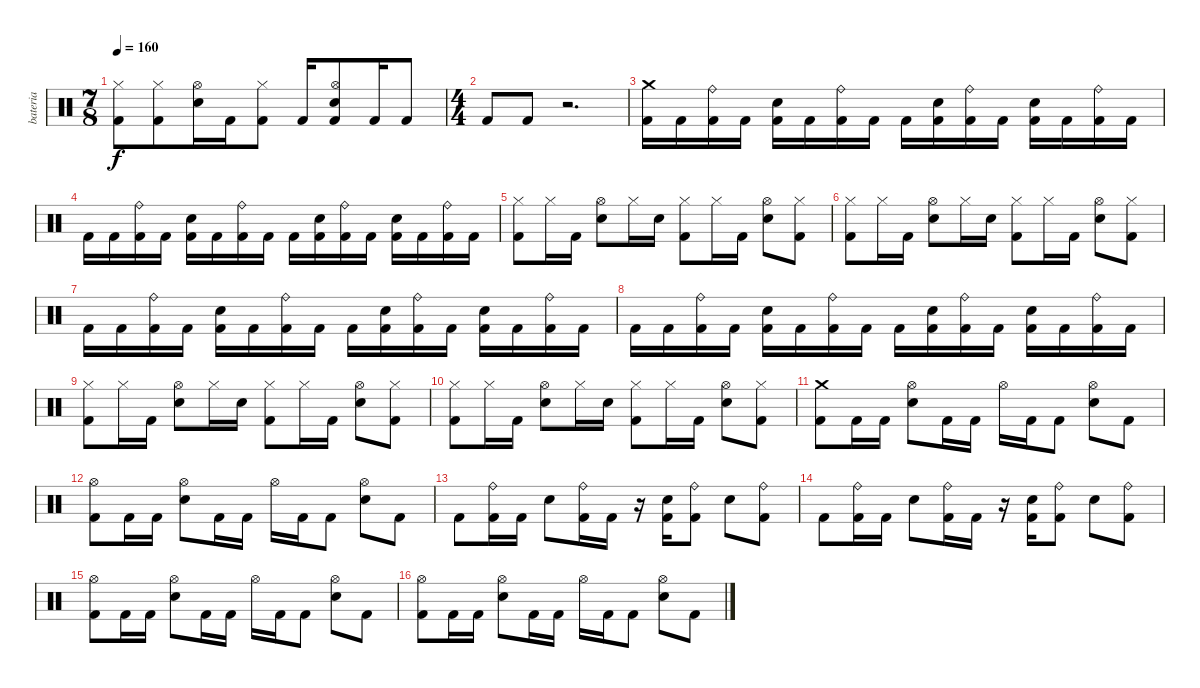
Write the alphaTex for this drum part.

\track ("bateria" "bateria") {instrument percussion}
\staff {score}
\articulation defaults
\ts (7 8)
\tempo 160
\clef neutral
\ks c
("Hi-Hat (closed)" "Kick (hit) 2").8{dy f} ("Hi-Hat (closed)" "Kick (hit) 2").8 ("Hi-Hat (open)" "Electric Snare (hit)").16 "Kick (hit) 2".16 ("Hi-Hat (closed)" "Kick (hit) 2").8 "Kick (hit) 2".16 ("Hi-Hat (open)" "Electric Snare (hit)" "Kick (hit) 2").8 "Kick (hit) 2".16 "Kick (hit) 2".8 |
\ts (4 4)
"Kick (hit) 2".8 "Kick (hit) 2".8 r.2{d} |
("Crash medium (hit)" "Kick (hit) 2").16 "Kick (hit) 2".16 ("Ride (bell)" "Kick (hit) 2").16 "Kick (hit) 2".16 ("Electric Snare (hit)" "Kick (hit) 2").16 "Kick (hit) 2".16 ("Ride (bell)" "Kick (hit) 2").16 "Kick (hit) 2".16 "Kick (hit) 2".16 ("Electric Snare (hit)" "Kick (hit) 2").16 ("Ride (bell)" "Kick (hit) 2").16 "Kick (hit) 2".16 ("Electric Snare (hit)" "Kick (hit) 2").16 "Kick (hit) 2".16 ("Ride (bell)" "Kick (hit) 2").16 "Kick (hit) 2".16 |
"Kick (hit) 2".16 "Kick (hit) 2".16 ("Ride (bell)" "Kick (hit) 2").16 "Kick (hit) 2".16 ("Electric Snare (hit)" "Kick (hit) 2").16 "Kick (hit) 2".16 ("Ride (bell)" "Kick (hit) 2").16 "Kick (hit) 2".16 "Kick (hit) 2".16 ("Electric Snare (hit)" "Kick (hit) 2").16 ("Ride (bell)" "Kick (hit) 2").16 "Kick (hit) 2".16 ("Electric Snare (hit)" "Kick (hit) 2").16 "Kick (hit) 2".16 ("Ride (bell)" "Kick (hit) 2").16 "Kick (hit) 2".16 |
("Hi-Hat (closed)" "Kick (hit) 2").8 "Hi-Hat (closed)".16 "Kick (hit) 2".16 ("Hi-Hat (open)" "Electric Snare (hit)").8 "Hi-Hat (closed)".16 "Electric Snare (hit)".16 ("Hi-Hat (closed)" "Kick (hit) 2").8 "Hi-Hat (closed)".16 "Kick (hit) 2".16 ("Hi-Hat (open)" "Electric Snare (hit)").8 ("Hi-Hat (closed)" "Kick (hit) 2").8 |
("Hi-Hat (closed)" "Kick (hit) 2").8 "Hi-Hat (closed)".16 "Kick (hit) 2".16 ("Hi-Hat (open)" "Electric Snare (hit)").8 "Hi-Hat (closed)".16 "Electric Snare (hit)".16 ("Hi-Hat (closed)" "Kick (hit) 2").8 "Hi-Hat (closed)".16 "Kick (hit) 2".16 ("Hi-Hat (open)" "Electric Snare (hit)").8 ("Hi-Hat (closed)" "Kick (hit) 2").8 |
"Kick (hit) 2".16 "Kick (hit) 2".16 ("Ride (bell)" "Kick (hit) 2").16 "Kick (hit) 2".16 ("Electric Snare (hit)" "Kick (hit) 2").16 "Kick (hit) 2".16 ("Ride (bell)" "Kick (hit) 2").16 "Kick (hit) 2".16 "Kick (hit) 2".16 ("Electric Snare (hit)" "Kick (hit) 2").16 ("Ride (bell)" "Kick (hit) 2").16 "Kick (hit) 2".16 ("Electric Snare (hit)" "Kick (hit) 2").16 "Kick (hit) 2".16 ("Ride (bell)" "Kick (hit) 2").16 "Kick (hit) 2".16 |
"Kick (hit) 2".16 "Kick (hit) 2".16 ("Ride (bell)" "Kick (hit) 2").16 "Kick (hit) 2".16 ("Electric Snare (hit)" "Kick (hit) 2").16 "Kick (hit) 2".16 ("Ride (bell)" "Kick (hit) 2").16 "Kick (hit) 2".16 "Kick (hit) 2".16 ("Electric Snare (hit)" "Kick (hit) 2").16 ("Ride (bell)" "Kick (hit) 2").16 "Kick (hit) 2".16 ("Electric Snare (hit)" "Kick (hit) 2").16 "Kick (hit) 2".16 ("Ride (bell)" "Kick (hit) 2").16 "Kick (hit) 2".16 |
("Hi-Hat (closed)" "Kick (hit) 2").8 "Hi-Hat (closed)".16 "Kick (hit) 2".16 ("Hi-Hat (open)" "Electric Snare (hit)").8 "Hi-Hat (closed)".16 "Electric Snare (hit)".16 ("Hi-Hat (closed)" "Kick (hit) 2").8 "Hi-Hat (closed)".16 "Kick (hit) 2".16 ("Hi-Hat (open)" "Electric Snare (hit)").8 ("Hi-Hat (closed)" "Kick (hit) 2").8 |
("Hi-Hat (closed)" "Kick (hit) 2").8 "Hi-Hat (closed)".16 "Kick (hit) 2".16 ("Hi-Hat (open)" "Electric Snare (hit)").8 "Hi-Hat (closed)".16 "Electric Snare (hit)".16 ("Hi-Hat (closed)" "Kick (hit) 2").8 "Hi-Hat (closed)".16 "Kick (hit) 2".16 ("Hi-Hat (open)" "Electric Snare (hit)").8 ("Hi-Hat (closed)" "Kick (hit) 2").8 |
("Crash medium (hit)" "Kick (hit) 2").8 "Kick (hit) 2".16 "Kick (hit) 2".16 ("Hi-Hat (open)" "Electric Snare (hit)").8 "Kick (hit) 2".16 "Kick (hit) 2".16 "Hi-Hat (open)".16 "Kick (hit) 2".16 "Kick (hit) 2".8 ("Hi-Hat (open)" "Electric Snare (hit)").8 "Kick (hit) 2".8 |
("Hi-Hat (open)" "Kick (hit) 2").8 "Kick (hit) 2".16 "Kick (hit) 2".16 ("Hi-Hat (open)" "Electric Snare (hit)").8 "Kick (hit) 2".16 "Kick (hit) 2".16 "Hi-Hat (open)".16 "Kick (hit) 2".16 "Kick (hit) 2".8 ("Hi-Hat (open)" "Electric Snare (hit)").8 "Kick (hit) 2".8 |
"Kick (hit) 2".8 ("Ride (bell)" "Kick (hit) 2").16 "Kick (hit) 2".16 "Electric Snare (hit)".8 ("Ride (bell)" "Kick (hit) 2").16 "Kick (hit) 2".16 r.16 ("Electric Snare (hit)" "Kick (hit) 2").16 ("Ride (bell)" "Kick (hit) 2").8 "Electric Snare (hit)".8 ("Ride (bell)" "Kick (hit) 2").8 |
"Kick (hit) 2".8 ("Ride (bell)" "Kick (hit) 2").16 "Kick (hit) 2".16 "Electric Snare (hit)".8 ("Ride (bell)" "Kick (hit) 2").16 "Kick (hit) 2".16 r.16 ("Electric Snare (hit)" "Kick (hit) 2").16 ("Ride (bell)" "Kick (hit) 2").8 "Electric Snare (hit)".8 ("Ride (bell)" "Kick (hit) 2").8 |
("Hi-Hat (open)" "Kick (hit) 2").8 "Kick (hit) 2".16 "Kick (hit) 2".16 ("Hi-Hat (open)" "Electric Snare (hit)").8 "Kick (hit) 2".16 "Kick (hit) 2".16 "Hi-Hat (open)".16 "Kick (hit) 2".16 "Kick (hit) 2".8 ("Hi-Hat (open)" "Electric Snare (hit)").8 "Kick (hit) 2".8 |
("Hi-Hat (open)" "Kick (hit) 2").8 "Kick (hit) 2".16 "Kick (hit) 2".16 ("Hi-Hat (open)" "Electric Snare (hit)").8 "Kick (hit) 2".16 "Kick (hit) 2".16 "Hi-Hat (open)".16 "Kick (hit) 2".16 "Kick (hit) 2".8 ("Hi-Hat (open)" "Electric Snare (hit)").8 "Kick (hit) 2".8
